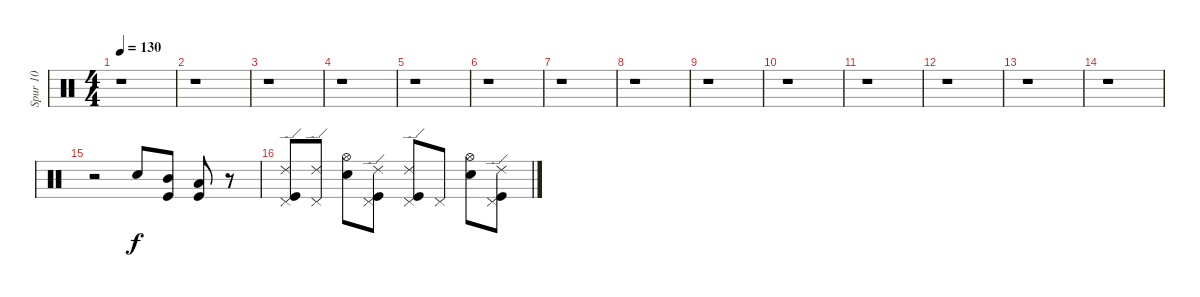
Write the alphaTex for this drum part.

\track ("Spur 10" "Spur 10") {instrument percussion}
\staff {score}
\articulation defaults
\ts (4 4)
\tempo 130
\clef neutral
\ks c
r.1{dy f} |
r.1 |
r.1 |
r.1 |
r.1 |
r.1 |
r.1 |
r.1 |
r.1 |
r.1 |
r.1 |
r.1 |
r.1 |
r.1 |
r.2 "Electric Snare (hit)".8 ("Mid Tom (hit)" "Kick (hit)").8 ("Low Tom (hit)" "Kick (hit)").8 r.8 |
("Kick (hit)" "Pedal Hi-Hat (hit)" "Ride (edge) 2").8 ("Pedal Hi-Hat (hit)" "Ride (edge) 2").8 ("Electric Snare (hit)" "Hi-Hat (open)").8 ("Kick (hit)" "Pedal Hi-Hat (hit)" "Ride (edge) 2").8 ("Kick (hit)" "Pedal Hi-Hat (hit)" "Ride (edge) 2").8 "Pedal Hi-Hat (hit)".8 ("Electric Snare (hit)" "Hi-Hat (open)").8 ("Kick (hit)" "Pedal Hi-Hat (hit)" "Ride (edge) 2").8
